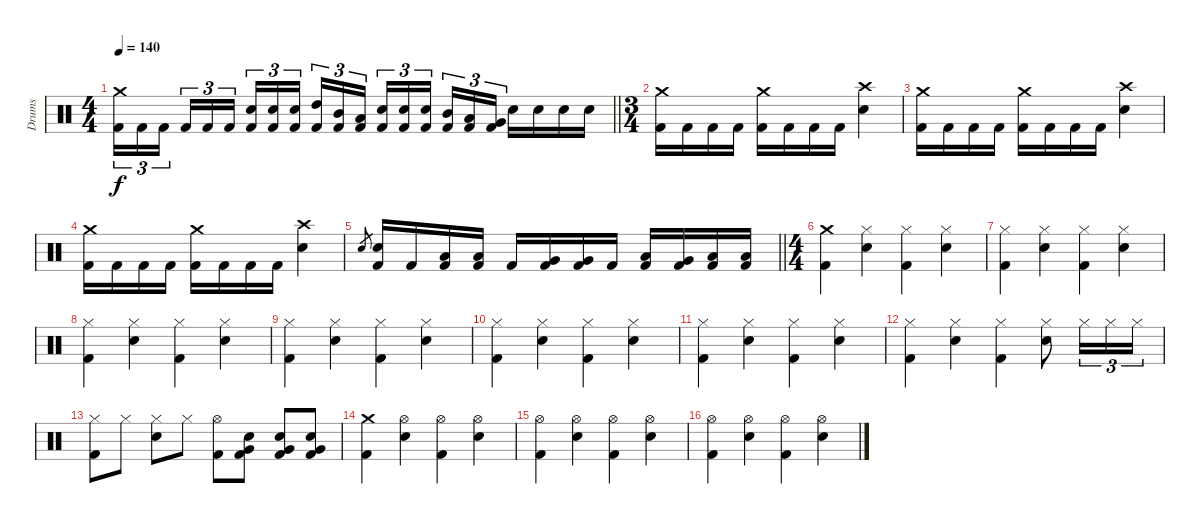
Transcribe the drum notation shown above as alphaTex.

\track ("Drums" "Drums") {instrument percussion}
\staff {score}
\articulation defaults
\ts (4 4)
\tempo 140
\clef neutral
\barLineRight lightlight
\ks c
("Crash medium (hit)" "Kick (hit) 2").16{tu (3 2) dy f} "Kick (hit) 2".16{tu (3 2)} "Kick (hit) 2".16{tu (3 2) beam splitsecondary} "Kick (hit) 2".16{tu (3 2)} "Kick (hit) 2".16{tu (3 2)} "Kick (hit) 2".16{tu (3 2)} ("Electric Snare (hit)" "Kick (hit) 2").16{tu (3 2)} ("Electric Snare (hit)" "Kick (hit) 2").16{tu (3 2)} ("Electric Snare (hit)" "Kick (hit) 2").16{tu (3 2) beam splitsecondary} ("High Tom (hit)" "Kick (hit) 2").16{tu (3 2)} ("Mid Tom (hit)" "Kick (hit) 2").16{tu (3 2)} ("Low Tom (hit)" "Kick (hit) 2").16{tu (3 2)} ("Electric Snare (hit)" "Kick (hit) 2").16{tu (3 2)} ("Electric Snare (hit)" "Kick (hit) 2").16{tu (3 2)} ("Electric Snare (hit)" "Kick (hit) 2").16{tu (3 2) beam splitsecondary} ("Mid Tom (hit)" "Kick (hit) 2").16{tu (3 2)} ("Low Tom (hit)" "Kick (hit) 2").16{tu (3 2)} ("Very Low Tom (hit)" "Kick (hit) 2").16{tu (3 2)} "Electric Snare (hit)".16 "Electric Snare (hit)".16 "Electric Snare (hit)".16 "Electric Snare (hit)".16 |
\ts (3 4)
("Crash medium (hit)" "Kick (hit) 2").16 "Kick (hit) 2".16 "Kick (hit) 2".16 "Kick (hit) 2".16 ("Crash medium (hit)" "Kick (hit) 2").16 "Kick (hit) 2".16 "Kick (hit) 2".16 "Kick (hit) 2".16 ("Crash high (hit)" "Electric Snare (hit)").4 |
("Crash medium (hit)" "Kick (hit) 2").16 "Kick (hit) 2".16 "Kick (hit) 2".16 "Kick (hit) 2".16 ("Crash medium (hit)" "Kick (hit) 2").16 "Kick (hit) 2".16 "Kick (hit) 2".16 "Kick (hit) 2".16 ("Crash high (hit)" "Electric Snare (hit)").4 |
("Crash medium (hit)" "Kick (hit) 2").16 "Kick (hit) 2".16 "Kick (hit) 2".16 "Kick (hit) 2".16 ("Crash medium (hit)" "Kick (hit) 2").16 "Kick (hit) 2".16 "Kick (hit) 2".16 "Kick (hit) 2".16 ("Crash high (hit)" "Electric Snare (hit)").4 |
\barLineRight lightlight "Electric Snare (hit)".8{gr}
("Electric Snare (hit)" "Kick (hit) 2").16 "Kick (hit) 2".16 ("Low Tom (hit)" "Kick (hit) 2").16 ("Low Tom (hit)" "Kick (hit) 2").16 "Kick (hit) 2".16 ("Very Low Tom (hit)" "Kick (hit) 2").16 ("Very Low Tom (hit)" "Kick (hit) 2").16 "Kick (hit) 2".16 ("Low Tom (hit)" "Kick (hit) 2").16 ("Very Low Tom (hit)" "Kick (hit) 2").16 ("Low Floor Tom (hit)" "Kick (hit) 2").16 ("Low Floor Tom (hit)" "Kick (hit) 2").16 |
\ts (4 4)
("Crash medium (hit)" "Kick (hit) 2").4 ("Hi-Hat (closed)" "Electric Snare (hit)").4 ("Hi-Hat (closed)" "Kick (hit) 2").4 ("Hi-Hat (closed)" "Electric Snare (hit)").4 |
("Hi-Hat (closed)" "Kick (hit) 2").4 ("Hi-Hat (closed)" "Electric Snare (hit)").4 ("Hi-Hat (closed)" "Kick (hit) 2").4 ("Hi-Hat (closed)" "Electric Snare (hit)").4 |
("Hi-Hat (closed)" "Kick (hit) 2").4 ("Hi-Hat (closed)" "Electric Snare (hit)").4 ("Hi-Hat (closed)" "Kick (hit) 2").4 ("Hi-Hat (closed)" "Electric Snare (hit)").4 |
("Hi-Hat (closed)" "Kick (hit) 2").4 ("Hi-Hat (closed)" "Electric Snare (hit)").4 ("Hi-Hat (closed)" "Kick (hit) 2").4 ("Hi-Hat (closed)" "Electric Snare (hit)").4 |
("Hi-Hat (closed)" "Kick (hit) 2").4 ("Hi-Hat (closed)" "Electric Snare (hit)").4 ("Hi-Hat (closed)" "Kick (hit) 2").4 ("Hi-Hat (closed)" "Electric Snare (hit)").4 |
("Hi-Hat (closed)" "Kick (hit) 2").4 ("Hi-Hat (closed)" "Electric Snare (hit)").4 ("Hi-Hat (closed)" "Kick (hit) 2").4 ("Hi-Hat (closed)" "Electric Snare (hit)").4 |
("Hi-Hat (closed)" "Kick (hit) 2").4 ("Hi-Hat (closed)" "Electric Snare (hit)").4 ("Hi-Hat (closed)" "Kick (hit) 2").4 ("Hi-Hat (closed)" "Electric Snare (hit)").8 "Hi-Hat (closed)".16{tu (3 2)} "Hi-Hat (closed)".16{tu (3 2)} "Hi-Hat (closed)".16{tu (3 2)} |
("Hi-Hat (closed)" "Kick (hit) 2").8 "Hi-Hat (closed)".8 ("Hi-Hat (closed)" "Electric Snare (hit)").8 "Hi-Hat (closed)".8 ("Hi-Hat (open)" "Kick (hit) 2").8 ("Very Low Tom (hit)" "Electric Snare (hit)" "Kick (hit) 2").8 ("Very Low Tom (hit)" "Electric Snare (hit)" "Kick (hit) 2").8 ("Very Low Tom (hit)" "Electric Snare (hit)" "Kick (hit) 2").8 |
("Crash medium (hit)" "Kick (hit) 2").4 ("Hi-Hat (open)" "Electric Snare (hit)").4 ("Hi-Hat (open)" "Kick (hit) 2").4 ("Hi-Hat (open)" "Electric Snare (hit)").4 |
("Hi-Hat (open)" "Kick (hit) 2").4 ("Hi-Hat (open)" "Electric Snare (hit)").4 ("Hi-Hat (open)" "Kick (hit) 2").4 ("Hi-Hat (open)" "Electric Snare (hit)").4 |
("Hi-Hat (open)" "Kick (hit) 2").4 ("Hi-Hat (open)" "Electric Snare (hit)").4 ("Hi-Hat (open)" "Kick (hit) 2").4 ("Hi-Hat (open)" "Electric Snare (hit)").4
